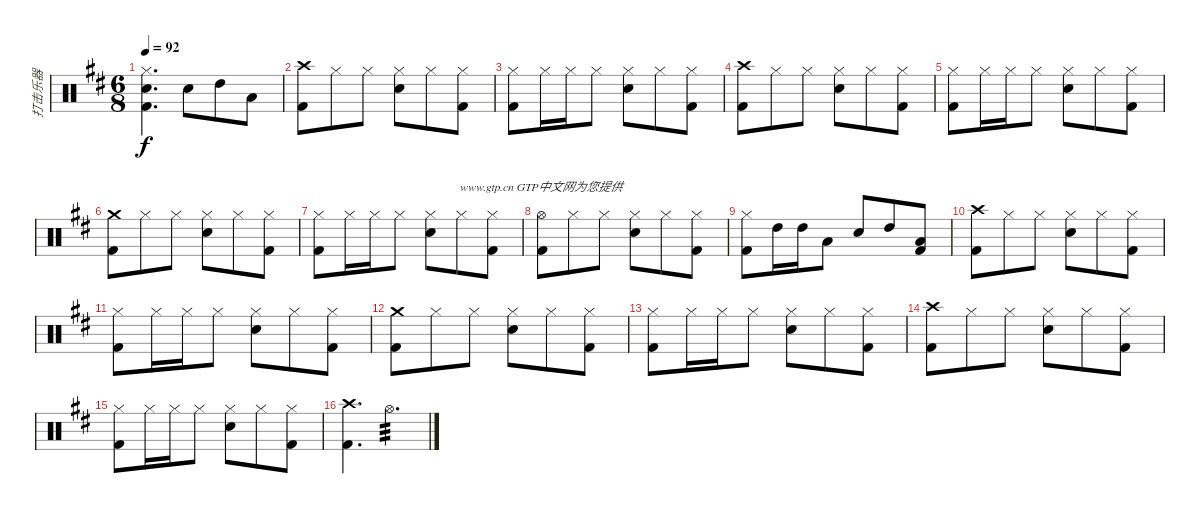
\track ("打击乐器" "打击乐器") {instrument percussion}
\staff {score}
\articulation defaults
\ts (6 8)
\tempo 92
\clef neutral
\ks d
("Hi-Hat (closed)" "Snare (hit) 2" "Kick (hit) 2").4{d dy f} "Snare (hit) 2".8 "High Tom (hit)".8 "Low Tom (hit)".8 |
("Crash high (hit)" "Kick (hit) 2").8 "Hi-Hat (closed)".8 "Hi-Hat (closed)".8 ("Hi-Hat (closed)" "Snare (hit) 2").8 "Hi-Hat (closed)".8 ("Hi-Hat (closed)" "Kick (hit) 2").8 |
("Hi-Hat (closed)" "Kick (hit) 2").8 "Hi-Hat (closed)".16 "Hi-Hat (closed)".16 "Hi-Hat (closed)".8 ("Hi-Hat (closed)" "Snare (hit) 2").8 "Hi-Hat (closed)".8 ("Hi-Hat (closed)" "Kick (hit) 2").8 |
("Crash high (hit)" "Kick (hit) 2").8 "Hi-Hat (closed)".8 "Hi-Hat (closed)".8 ("Hi-Hat (closed)" "Snare (hit) 2").8 "Hi-Hat (closed)".8 ("Hi-Hat (closed)" "Kick (hit) 2").8 |
("Hi-Hat (closed)" "Kick (hit) 2").8 "Hi-Hat (closed)".16 "Hi-Hat (closed)".16 "Hi-Hat (closed)".8 ("Hi-Hat (closed)" "Snare (hit) 2").8 "Hi-Hat (closed)".8 ("Hi-Hat (closed)" "Kick (hit) 2").8 |
("Crash medium (hit)" "Kick (hit) 2").8 "Hi-Hat (closed)".8 "Hi-Hat (closed)".8 ("Hi-Hat (closed)" "Snare (hit) 2").8 "Hi-Hat (closed)".8 ("Hi-Hat (closed)" "Kick (hit) 2").8 |
("Hi-Hat (closed)" "Kick (hit) 2").8 "Hi-Hat (closed)".16 "Hi-Hat (closed)".16 "Hi-Hat (closed)".8{txt "                    www.gtp.cn GTP中文网为您提供"} ("Hi-Hat (closed)" "Snare (hit) 2").8 "Hi-Hat (closed)".8 ("Hi-Hat (closed)" "Kick (hit) 2").8 |
("Hi-Hat (open)" "Kick (hit) 2").8 "Hi-Hat (closed)".8 "Hi-Hat (closed)".8 ("Hi-Hat (closed)" "Snare (hit) 2").8 "Hi-Hat (closed)".8 ("Hi-Hat (closed)" "Kick (hit) 2").8 |
("Hi-Hat (closed)" "Kick (hit) 2").8 "High Tom (hit)".16 "High Tom (hit)".16 "Low Tom (hit)".8 "Snare (hit) 2".8 "High Tom (hit)".8 ("Low Tom (hit)" "Kick (hit) 2").8 |
("Crash high (hit)" "Kick (hit) 2").8 "Hi-Hat (closed)".8 "Hi-Hat (closed)".8 ("Hi-Hat (closed)" "Snare (hit) 2").8 "Hi-Hat (closed)".8 ("Hi-Hat (closed)" "Kick (hit) 2").8 |
("Hi-Hat (closed)" "Kick (hit) 2").8 "Hi-Hat (closed)".16 "Hi-Hat (closed)".16 "Hi-Hat (closed)".8 ("Hi-Hat (closed)" "Snare (hit) 2").8 "Hi-Hat (closed)".8 ("Hi-Hat (closed)" "Kick (hit) 2").8 |
("Crash medium (hit)" "Kick (hit) 2").8 "Hi-Hat (closed)".8 "Hi-Hat (closed)".8 ("Hi-Hat (closed)" "Snare (hit) 2").8 "Hi-Hat (closed)".8 ("Hi-Hat (closed)" "Kick (hit) 2").8 |
("Hi-Hat (closed)" "Kick (hit) 2").8 "Hi-Hat (closed)".16 "Hi-Hat (closed)".16 "Hi-Hat (closed)".8 ("Hi-Hat (closed)" "Snare (hit) 2").8 "Hi-Hat (closed)".8 ("Hi-Hat (closed)" "Kick (hit) 2").8 |
("Crash high (hit)" "Kick (hit) 2").8 "Hi-Hat (closed)".8 "Hi-Hat (closed)".8 ("Hi-Hat (closed)" "Snare (hit) 2").8 "Hi-Hat (closed)".8 ("Hi-Hat (closed)" "Kick (hit) 2").8 |
("Hi-Hat (closed)" "Kick (hit) 2").8 "Hi-Hat (closed)".16 "Hi-Hat (closed)".16 "Hi-Hat (closed)".8 ("Hi-Hat (closed)" "Snare (hit) 2").8 "Hi-Hat (closed)".8 ("Hi-Hat (closed)" "Kick (hit) 2").8 |
("Crash high (hit)" "Kick (hit) 2").4{d} "Hi-Hat (open)".4{d tp 3}
